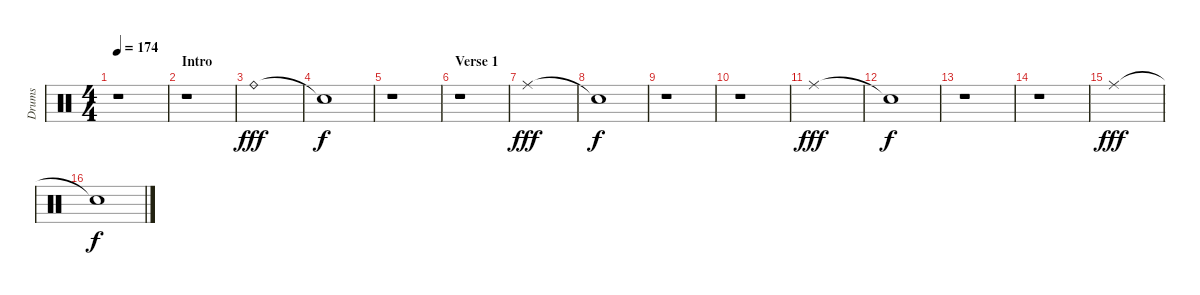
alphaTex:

\track ("Drums" "Drums") {instrument percussion}
\staff {score}
\articulation defaults
\ts (4 4)
\tempo 174
\clef neutral
\ks c
r.1{dy fff} |
\section ("" "Intro")
r.1 |
"Ride (bell)".1 |
"Snare (hit)"{t}.1{dy f} |
r.1 |
\section ("" "Verse 1")
r.1 |
"Ride (middle)".1{dy fff} |
"Snare (hit)"{t}.1{dy f} |
r.1 |
r.1 |
"Ride (middle)".1{dy fff} |
"Snare (hit)"{t}.1{dy f} |
r.1 |
r.1 |
"Ride (middle)".1{dy fff} |
"Snare (hit)"{t}.1{dy f}
